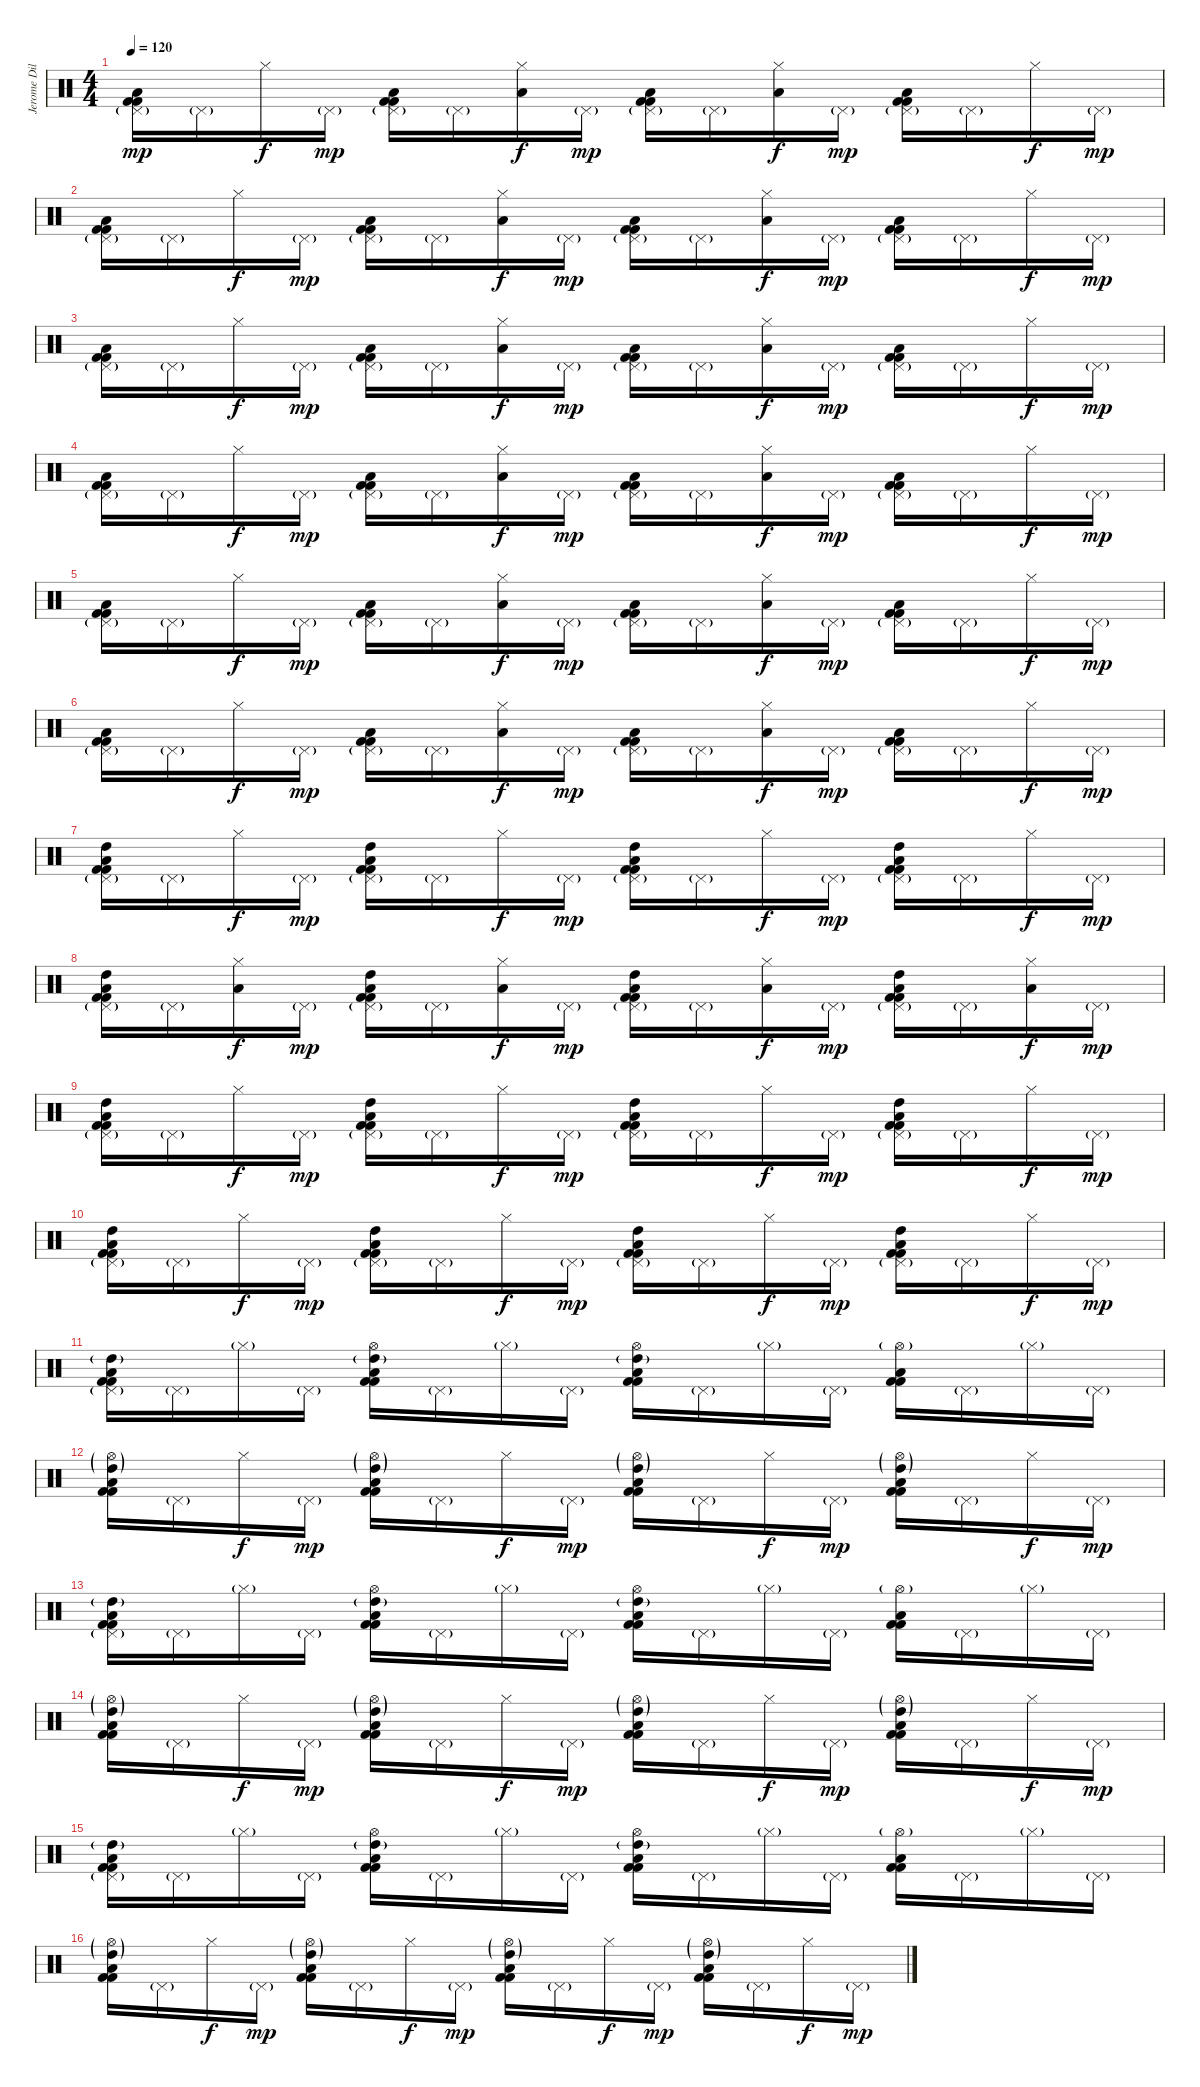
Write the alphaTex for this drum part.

\track ("Jerome Dillon" "Jerome Dil") {instrument percussion}
\staff {score}
\articulation defaults
\ts (4 4)
\tempo 120
\clef neutral
\ks c
("Pedal Hi-Hat (hit)"{g} "Low Tom (hit)" "Kick (hit) 2" "Kick (hit) 2").16{dy mp} "Pedal Hi-Hat (hit)"{g}.16 "Hi-Hat (closed)".16{dy f} "Pedal Hi-Hat (hit)"{g}.16{dy mp} ("Pedal Hi-Hat (hit)"{g} "Low Tom (hit)" "Kick (hit) 2" "Kick (hit) 2").16 "Pedal Hi-Hat (hit)"{g}.16 ("Hi-Hat (closed)" "Low Floor Tom (hit)").16{dy f} "Pedal Hi-Hat (hit)"{g}.16{dy mp} ("Pedal Hi-Hat (hit)"{g} "Low Tom (hit)" "Kick (hit) 2" "Kick (hit) 2").16 "Pedal Hi-Hat (hit)"{g}.16 ("Hi-Hat (closed)" "Low Floor Tom (hit)").16{dy f} "Pedal Hi-Hat (hit)"{g}.16{dy mp} ("Pedal Hi-Hat (hit)"{g} "Low Tom (hit)" "Kick (hit) 2" "Kick (hit) 2").16 "Pedal Hi-Hat (hit)"{g}.16 "Hi-Hat (closed)".16{dy f} "Pedal Hi-Hat (hit)"{g}.16{dy mp} |
("Pedal Hi-Hat (hit)"{g} "Low Tom (hit)" "Kick (hit) 2" "Kick (hit) 2").16 "Pedal Hi-Hat (hit)"{g}.16 "Hi-Hat (closed)".16{dy f} "Pedal Hi-Hat (hit)"{g}.16{dy mp} ("Pedal Hi-Hat (hit)"{g} "Low Tom (hit)" "Kick (hit) 2" "Kick (hit) 2").16 "Pedal Hi-Hat (hit)"{g}.16 ("Hi-Hat (closed)" "Low Floor Tom (hit)").16{dy f} "Pedal Hi-Hat (hit)"{g}.16{dy mp} ("Pedal Hi-Hat (hit)"{g} "Low Tom (hit)" "Kick (hit) 2" "Kick (hit) 2").16 "Pedal Hi-Hat (hit)"{g}.16 ("Hi-Hat (closed)" "Low Floor Tom (hit)").16{dy f} "Pedal Hi-Hat (hit)"{g}.16{dy mp} ("Pedal Hi-Hat (hit)"{g} "Low Tom (hit)" "Kick (hit) 2" "Kick (hit) 2").16 "Pedal Hi-Hat (hit)"{g}.16 "Hi-Hat (closed)".16{dy f} "Pedal Hi-Hat (hit)"{g}.16{dy mp} |
("Pedal Hi-Hat (hit)"{g} "Low Tom (hit)" "Kick (hit) 2" "Kick (hit) 2").16 "Pedal Hi-Hat (hit)"{g}.16 "Hi-Hat (closed)".16{dy f} "Pedal Hi-Hat (hit)"{g}.16{dy mp} ("Pedal Hi-Hat (hit)"{g} "Low Tom (hit)" "Kick (hit) 2" "Kick (hit) 2").16 "Pedal Hi-Hat (hit)"{g}.16 ("Hi-Hat (closed)" "Low Floor Tom (hit)").16{dy f} "Pedal Hi-Hat (hit)"{g}.16{dy mp} ("Pedal Hi-Hat (hit)"{g} "Low Tom (hit)" "Kick (hit) 2" "Kick (hit) 2").16 "Pedal Hi-Hat (hit)"{g}.16 ("Hi-Hat (closed)" "Low Floor Tom (hit)").16{dy f} "Pedal Hi-Hat (hit)"{g}.16{dy mp} ("Pedal Hi-Hat (hit)"{g} "Low Tom (hit)" "Kick (hit) 2" "Kick (hit) 2").16 "Pedal Hi-Hat (hit)"{g}.16 "Hi-Hat (closed)".16{dy f} "Pedal Hi-Hat (hit)"{g}.16{dy mp} |
("Pedal Hi-Hat (hit)"{g} "Low Tom (hit)" "Kick (hit) 2" "Kick (hit) 2").16 "Pedal Hi-Hat (hit)"{g}.16 "Hi-Hat (closed)".16{dy f} "Pedal Hi-Hat (hit)"{g}.16{dy mp} ("Pedal Hi-Hat (hit)"{g} "Low Tom (hit)" "Kick (hit) 2" "Kick (hit) 2").16 "Pedal Hi-Hat (hit)"{g}.16 ("Hi-Hat (closed)" "Low Floor Tom (hit)").16{dy f} "Pedal Hi-Hat (hit)"{g}.16{dy mp} ("Pedal Hi-Hat (hit)"{g} "Low Tom (hit)" "Kick (hit) 2" "Kick (hit) 2").16 "Pedal Hi-Hat (hit)"{g}.16 ("Hi-Hat (closed)" "Low Floor Tom (hit)").16{dy f} "Pedal Hi-Hat (hit)"{g}.16{dy mp} ("Pedal Hi-Hat (hit)"{g} "Low Tom (hit)" "Kick (hit) 2" "Kick (hit) 2").16 "Pedal Hi-Hat (hit)"{g}.16 "Hi-Hat (closed)".16{dy f} "Pedal Hi-Hat (hit)"{g}.16{dy mp} |
("Pedal Hi-Hat (hit)"{g} "Low Tom (hit)" "Kick (hit) 2" "Kick (hit) 2").16 "Pedal Hi-Hat (hit)"{g}.16 "Hi-Hat (closed)".16{dy f} "Pedal Hi-Hat (hit)"{g}.16{dy mp} ("Pedal Hi-Hat (hit)"{g} "Low Tom (hit)" "Kick (hit) 2" "Kick (hit) 2").16 "Pedal Hi-Hat (hit)"{g}.16 ("Hi-Hat (closed)" "Low Floor Tom (hit)").16{dy f} "Pedal Hi-Hat (hit)"{g}.16{dy mp} ("Pedal Hi-Hat (hit)"{g} "Low Tom (hit)" "Kick (hit) 2" "Kick (hit) 2").16 "Pedal Hi-Hat (hit)"{g}.16 ("Hi-Hat (closed)" "Low Floor Tom (hit)").16{dy f} "Pedal Hi-Hat (hit)"{g}.16{dy mp} ("Pedal Hi-Hat (hit)"{g} "Low Tom (hit)" "Kick (hit) 2" "Kick (hit) 2").16 "Pedal Hi-Hat (hit)"{g}.16 "Hi-Hat (closed)".16{dy f} "Pedal Hi-Hat (hit)"{g}.16{dy mp} |
("Pedal Hi-Hat (hit)"{g} "Low Tom (hit)" "Kick (hit) 2" "Kick (hit) 2").16 "Pedal Hi-Hat (hit)"{g}.16 "Hi-Hat (closed)".16{dy f} "Pedal Hi-Hat (hit)"{g}.16{dy mp} ("Pedal Hi-Hat (hit)"{g} "Low Tom (hit)" "Kick (hit) 2" "Kick (hit) 2").16 "Pedal Hi-Hat (hit)"{g}.16 ("Hi-Hat (closed)" "Low Floor Tom (hit)").16{dy f} "Pedal Hi-Hat (hit)"{g}.16{dy mp} ("Pedal Hi-Hat (hit)"{g} "Low Tom (hit)" "Kick (hit) 2" "Kick (hit) 2").16 "Pedal Hi-Hat (hit)"{g}.16 ("Hi-Hat (closed)" "Low Floor Tom (hit)").16{dy f} "Pedal Hi-Hat (hit)"{g}.16{dy mp} ("Pedal Hi-Hat (hit)"{g} "Low Tom (hit)" "Kick (hit) 2" "Kick (hit) 2").16 "Pedal Hi-Hat (hit)"{g}.16 "Hi-Hat (closed)".16{dy f} "Pedal Hi-Hat (hit)"{g}.16{dy mp} |
("Pedal Hi-Hat (hit)"{g} "High Tom (hit)" "Low Tom (hit)" "Kick (hit) 2" "Kick (hit) 2").16 "Pedal Hi-Hat (hit)"{g}.16 "Hi-Hat (closed)".16{dy f} "Pedal Hi-Hat (hit)"{g}.16{dy mp} ("Pedal Hi-Hat (hit)"{g} "High Tom (hit)" "Low Tom (hit)" "Kick (hit) 2" "Kick (hit) 2").16 "Pedal Hi-Hat (hit)"{g}.16 "Hi-Hat (closed)".16{dy f} "Pedal Hi-Hat (hit)"{g}.16{dy mp} ("Pedal Hi-Hat (hit)"{g} "High Tom (hit)" "Low Tom (hit)" "Kick (hit) 2" "Kick (hit) 2").16 "Pedal Hi-Hat (hit)"{g}.16 "Hi-Hat (closed)".16{dy f} "Pedal Hi-Hat (hit)"{g}.16{dy mp} ("Pedal Hi-Hat (hit)"{g} "High Tom (hit)" "Low Tom (hit)" "Kick (hit) 2" "Kick (hit) 2").16 "Pedal Hi-Hat (hit)"{g}.16 "Hi-Hat (closed)".16{dy f} "Pedal Hi-Hat (hit)"{g}.16{dy mp} |
("Pedal Hi-Hat (hit)"{g} "High Tom (hit)" "Low Tom (hit)" "Kick (hit) 2" "Kick (hit) 2").16 "Pedal Hi-Hat (hit)"{g}.16 ("Hi-Hat (closed)" "Low Floor Tom (hit)").16{dy f} "Pedal Hi-Hat (hit)"{g}.16{dy mp} ("Pedal Hi-Hat (hit)"{g} "High Tom (hit)" "Low Tom (hit)" "Kick (hit) 2" "Kick (hit) 2").16 "Pedal Hi-Hat (hit)"{g}.16 ("Hi-Hat (closed)" "Low Floor Tom (hit)").16{dy f} "Pedal Hi-Hat (hit)"{g}.16{dy mp} ("Pedal Hi-Hat (hit)"{g} "High Tom (hit)" "Low Tom (hit)" "Kick (hit) 2" "Kick (hit) 2").16 "Pedal Hi-Hat (hit)"{g}.16 ("Hi-Hat (closed)" "Low Floor Tom (hit)").16{dy f} "Pedal Hi-Hat (hit)"{g}.16{dy mp} ("Pedal Hi-Hat (hit)"{g} "High Tom (hit)" "Low Tom (hit)" "Kick (hit) 2" "Kick (hit) 2").16 "Pedal Hi-Hat (hit)"{g}.16 ("Hi-Hat (closed)" "Low Floor Tom (hit)").16{dy f} "Pedal Hi-Hat (hit)"{g}.16{dy mp} |
("Pedal Hi-Hat (hit)"{g} "High Tom (hit)" "Low Tom (hit)" "Kick (hit) 2" "Kick (hit) 2").16 "Pedal Hi-Hat (hit)"{g}.16 "Hi-Hat (closed)".16{dy f} "Pedal Hi-Hat (hit)"{g}.16{dy mp} ("Pedal Hi-Hat (hit)"{g} "High Tom (hit)" "Low Tom (hit)" "Kick (hit) 2" "Kick (hit) 2").16 "Pedal Hi-Hat (hit)"{g}.16 "Hi-Hat (closed)".16{dy f} "Pedal Hi-Hat (hit)"{g}.16{dy mp} ("Pedal Hi-Hat (hit)"{g} "High Tom (hit)" "Low Tom (hit)" "Kick (hit) 2" "Kick (hit) 2").16 "Pedal Hi-Hat (hit)"{g}.16 "Hi-Hat (closed)".16{dy f} "Pedal Hi-Hat (hit)"{g}.16{dy mp} ("Pedal Hi-Hat (hit)"{g} "High Tom (hit)" "Low Tom (hit)" "Kick (hit) 2" "Kick (hit) 2").16 "Pedal Hi-Hat (hit)"{g}.16 "Hi-Hat (closed)".16{dy f} "Pedal Hi-Hat (hit)"{g}.16{dy mp} |
("Pedal Hi-Hat (hit)"{g} "High Tom (hit)" "Low Tom (hit)" "Kick (hit) 2" "Kick (hit) 2").16 "Pedal Hi-Hat (hit)"{g}.16 "Hi-Hat (closed)".16{dy f} "Pedal Hi-Hat (hit)"{g}.16{dy mp} ("Pedal Hi-Hat (hit)"{g} "High Tom (hit)" "Low Tom (hit)" "Kick (hit) 2" "Kick (hit) 2").16 "Pedal Hi-Hat (hit)"{g}.16 "Hi-Hat (closed)".16{dy f} "Pedal Hi-Hat (hit)"{g}.16{dy mp} ("Pedal Hi-Hat (hit)"{g} "High Tom (hit)" "Low Tom (hit)" "Kick (hit) 2" "Kick (hit) 2").16 "Pedal Hi-Hat (hit)"{g}.16 "Hi-Hat (closed)".16{dy f} "Pedal Hi-Hat (hit)"{g}.16{dy mp} ("Pedal Hi-Hat (hit)"{g} "High Tom (hit)" "Low Tom (hit)" "Kick (hit) 2" "Kick (hit) 2").16 "Pedal Hi-Hat (hit)"{g}.16 "Hi-Hat (closed)".16{dy f} "Pedal Hi-Hat (hit)"{g}.16{dy mp} |
("Pedal Hi-Hat (hit)"{g} "High Tom (hit)"{g} "Low Tom (hit)" "Kick (hit) 2" "Kick (hit) 2").16 "Pedal Hi-Hat (hit)"{g}.16 "Hi-Hat (closed)"{g}.16 "Pedal Hi-Hat (hit)"{g}.16 ("Hi-Hat (open)" "High Tom (hit)"{g} "Low Tom (hit)" "Kick (hit) 2" "Kick (hit) 2").16 "Pedal Hi-Hat (hit)"{g}.16 "Hi-Hat (closed)"{g}.16 "Pedal Hi-Hat (hit)"{g}.16 ("Hi-Hat (open)" "High Tom (hit)"{g} "Low Tom (hit)" "Kick (hit) 2" "Kick (hit) 2").16 "Pedal Hi-Hat (hit)"{g}.16 "Hi-Hat (closed)"{g}.16 "Pedal Hi-Hat (hit)"{g}.16 ("Hi-Hat (open)"{g} "Low Tom (hit)" "Kick (hit) 2" "Kick (hit) 2").16 "Pedal Hi-Hat (hit)"{g}.16 "Hi-Hat (closed)"{g}.16 "Pedal Hi-Hat (hit)"{g}.16 |
("Hi-Hat (open)"{g} "High Tom (hit)"{g} "Low Tom (hit)" "Kick (hit) 2" "Kick (hit) 2").16 "Pedal Hi-Hat (hit)"{g}.16 "Hi-Hat (closed)".16{dy f} "Pedal Hi-Hat (hit)"{g}.16{dy mp} ("Hi-Hat (open)"{g} "High Tom (hit)"{g} "Low Tom (hit)" "Kick (hit) 2" "Kick (hit) 2").16 "Pedal Hi-Hat (hit)"{g}.16 "Hi-Hat (closed)".16{dy f} "Pedal Hi-Hat (hit)"{g}.16{dy mp} ("Hi-Hat (open)"{g} "High Tom (hit)"{g} "Low Tom (hit)" "Kick (hit) 2" "Kick (hit) 2").16 "Pedal Hi-Hat (hit)"{g}.16 "Hi-Hat (closed)".16{dy f} "Pedal Hi-Hat (hit)"{g}.16{dy mp} ("Hi-Hat (open)"{g} "High Tom (hit)"{g} "Low Tom (hit)" "Kick (hit) 2" "Kick (hit) 2").16 "Pedal Hi-Hat (hit)"{g}.16 "Hi-Hat (closed)".16{dy f} "Pedal Hi-Hat (hit)"{g}.16{dy mp} |
("Pedal Hi-Hat (hit)"{g} "High Tom (hit)"{g} "Low Tom (hit)" "Kick (hit) 2" "Kick (hit) 2").16 "Pedal Hi-Hat (hit)"{g}.16 "Hi-Hat (closed)"{g}.16 "Pedal Hi-Hat (hit)"{g}.16 ("Hi-Hat (open)" "High Tom (hit)"{g} "Low Tom (hit)" "Kick (hit) 2" "Kick (hit) 2").16 "Pedal Hi-Hat (hit)"{g}.16 "Hi-Hat (closed)"{g}.16 "Pedal Hi-Hat (hit)"{g}.16 ("Hi-Hat (open)" "High Tom (hit)"{g} "Low Tom (hit)" "Kick (hit) 2" "Kick (hit) 2").16 "Pedal Hi-Hat (hit)"{g}.16 "Hi-Hat (closed)"{g}.16 "Pedal Hi-Hat (hit)"{g}.16 ("Hi-Hat (open)"{g} "Low Tom (hit)" "Kick (hit) 2" "Kick (hit) 2").16 "Pedal Hi-Hat (hit)"{g}.16 "Hi-Hat (closed)"{g}.16 "Pedal Hi-Hat (hit)"{g}.16 |
("Hi-Hat (open)"{g} "High Tom (hit)"{g} "Low Tom (hit)" "Kick (hit) 2" "Kick (hit) 2").16 "Pedal Hi-Hat (hit)"{g}.16 "Hi-Hat (closed)".16{dy f} "Pedal Hi-Hat (hit)"{g}.16{dy mp} ("Hi-Hat (open)"{g} "High Tom (hit)"{g} "Low Tom (hit)" "Kick (hit) 2" "Kick (hit) 2").16 "Pedal Hi-Hat (hit)"{g}.16 "Hi-Hat (closed)".16{dy f} "Pedal Hi-Hat (hit)"{g}.16{dy mp} ("Hi-Hat (open)"{g} "High Tom (hit)"{g} "Low Tom (hit)" "Kick (hit) 2" "Kick (hit) 2").16 "Pedal Hi-Hat (hit)"{g}.16 "Hi-Hat (closed)".16{dy f} "Pedal Hi-Hat (hit)"{g}.16{dy mp} ("Hi-Hat (open)"{g} "High Tom (hit)"{g} "Low Tom (hit)" "Kick (hit) 2" "Kick (hit) 2").16 "Pedal Hi-Hat (hit)"{g}.16 "Hi-Hat (closed)".16{dy f} "Pedal Hi-Hat (hit)"{g}.16{dy mp} |
("Pedal Hi-Hat (hit)"{g} "High Tom (hit)"{g} "Low Tom (hit)" "Kick (hit) 2" "Kick (hit) 2").16 "Pedal Hi-Hat (hit)"{g}.16 "Hi-Hat (closed)"{g}.16 "Pedal Hi-Hat (hit)"{g}.16 ("Hi-Hat (open)" "High Tom (hit)"{g} "Low Tom (hit)" "Kick (hit) 2" "Kick (hit) 2").16 "Pedal Hi-Hat (hit)"{g}.16 "Hi-Hat (closed)"{g}.16 "Pedal Hi-Hat (hit)"{g}.16 ("Hi-Hat (open)" "High Tom (hit)"{g} "Low Tom (hit)" "Kick (hit) 2" "Kick (hit) 2").16 "Pedal Hi-Hat (hit)"{g}.16 "Hi-Hat (closed)"{g}.16 "Pedal Hi-Hat (hit)"{g}.16 ("Hi-Hat (open)"{g} "Low Tom (hit)" "Kick (hit) 2" "Kick (hit) 2").16 "Pedal Hi-Hat (hit)"{g}.16 "Hi-Hat (closed)"{g}.16 "Pedal Hi-Hat (hit)"{g}.16 |
("Hi-Hat (open)"{g} "High Tom (hit)"{g} "Low Tom (hit)" "Kick (hit) 2" "Kick (hit) 2").16 "Pedal Hi-Hat (hit)"{g}.16 "Hi-Hat (closed)".16{dy f} "Pedal Hi-Hat (hit)"{g}.16{dy mp} ("Hi-Hat (open)"{g} "High Tom (hit)"{g} "Low Tom (hit)" "Kick (hit) 2" "Kick (hit) 2").16 "Pedal Hi-Hat (hit)"{g}.16 "Hi-Hat (closed)".16{dy f} "Pedal Hi-Hat (hit)"{g}.16{dy mp} ("Hi-Hat (open)"{g} "High Tom (hit)"{g} "Low Tom (hit)" "Kick (hit) 2" "Kick (hit) 2").16 "Pedal Hi-Hat (hit)"{g}.16 "Hi-Hat (closed)".16{dy f} "Pedal Hi-Hat (hit)"{g}.16{dy mp} ("Hi-Hat (open)"{g} "High Tom (hit)"{g} "Low Tom (hit)" "Kick (hit) 2" "Kick (hit) 2").16 "Pedal Hi-Hat (hit)"{g}.16 "Hi-Hat (closed)".16{dy f} "Pedal Hi-Hat (hit)"{g}.16{dy mp}
